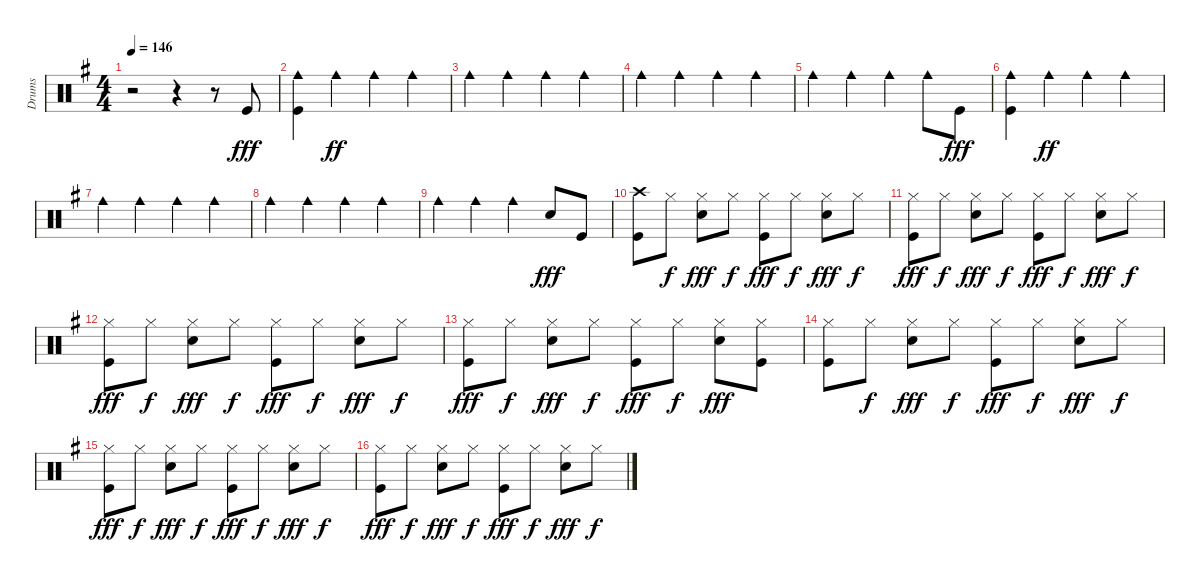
\track ("Drums" "Drums") {instrument percussion}
\staff {score}
\articulation defaults
\ts (4 4)
\tempo 146
\clef neutral
\ks g
r.2{dy fff} r.4 r.8 "Kick (hit)".8 |
("Cowbell medium (hit)" "Kick (hit)").4 "Cowbell medium (hit)".4{dy ff} "Cowbell medium (hit)".4 "Cowbell medium (hit)".4 |
"Cowbell medium (hit)".4 "Cowbell medium (hit)".4 "Cowbell medium (hit)".4 "Cowbell medium (hit)".4 |
"Cowbell medium (hit)".4 "Cowbell medium (hit)".4 "Cowbell medium (hit)".4 "Cowbell medium (hit)".4 |
"Cowbell medium (hit)".4 "Cowbell medium (hit)".4 "Cowbell medium (hit)".4 "Cowbell medium (hit)".8 "Kick (hit)".8{dy fff} |
("Cowbell medium (hit)" "Kick (hit)").4 "Cowbell medium (hit)".4{dy ff} "Cowbell medium (hit)".4 "Cowbell medium (hit)".4 |
"Cowbell medium (hit)".4 "Cowbell medium (hit)".4 "Cowbell medium (hit)".4 "Cowbell medium (hit)".4 |
"Cowbell medium (hit)".4 "Cowbell medium (hit)".4 "Cowbell medium (hit)".4 "Cowbell medium (hit)".4 |
"Cowbell medium (hit)".4 "Cowbell medium (hit)".4 "Cowbell medium (hit)".4 "Snare (hit) 2".8{dy fff} "Kick (hit)".8 |
("Crash high (hit)" "Kick (hit)").8 "Hi-Hat (closed)".8{dy f} ("Hi-Hat (closed)" "Snare (hit) 2").8{dy fff} "Hi-Hat (closed)".8{dy f} ("Hi-Hat (closed)" "Kick (hit)").8{dy fff} "Hi-Hat (closed)".8{dy f} ("Hi-Hat (closed)" "Snare (hit) 2").8{dy fff} "Hi-Hat (closed)".8{dy f} |
("Hi-Hat (closed)" "Kick (hit)").8{dy fff} "Hi-Hat (closed)".8{dy f} ("Hi-Hat (closed)" "Snare (hit) 2").8{dy fff} "Hi-Hat (closed)".8{dy f} ("Hi-Hat (closed)" "Kick (hit)").8{dy fff} "Hi-Hat (closed)".8{dy f} ("Hi-Hat (closed)" "Snare (hit) 2").8{dy fff} "Hi-Hat (closed)".8{dy f} |
("Hi-Hat (closed)" "Kick (hit)").8{dy fff} "Hi-Hat (closed)".8{dy f} ("Hi-Hat (closed)" "Snare (hit) 2").8{dy fff} "Hi-Hat (closed)".8{dy f} ("Hi-Hat (closed)" "Kick (hit)").8{dy fff} "Hi-Hat (closed)".8{dy f} ("Hi-Hat (closed)" "Snare (hit) 2").8{dy fff} "Hi-Hat (closed)".8{dy f} |
("Hi-Hat (closed)" "Kick (hit)").8{dy fff} "Hi-Hat (closed)".8{dy f} ("Hi-Hat (closed)" "Snare (hit) 2").8{dy fff} "Hi-Hat (closed)".8{dy f} ("Hi-Hat (closed)" "Kick (hit)").8{dy fff} "Hi-Hat (closed)".8{dy f} ("Hi-Hat (closed)" "Snare (hit) 2").8{dy fff} ("Hi-Hat (closed)" "Kick (hit)").8 |
("Hi-Hat (closed)" "Kick (hit)").8 "Hi-Hat (closed)".8{dy f} ("Hi-Hat (closed)" "Snare (hit) 2").8{dy fff} "Hi-Hat (closed)".8{dy f} ("Hi-Hat (closed)" "Kick (hit)").8{dy fff} "Hi-Hat (closed)".8{dy f} ("Hi-Hat (closed)" "Snare (hit) 2").8{dy fff} "Hi-Hat (closed)".8{dy f} |
("Hi-Hat (closed)" "Kick (hit)").8{dy fff} "Hi-Hat (closed)".8{dy f} ("Hi-Hat (closed)" "Snare (hit) 2").8{dy fff} "Hi-Hat (closed)".8{dy f} ("Hi-Hat (closed)" "Kick (hit)").8{dy fff} "Hi-Hat (closed)".8{dy f} ("Hi-Hat (closed)" "Snare (hit) 2").8{dy fff} "Hi-Hat (closed)".8{dy f} |
("Hi-Hat (closed)" "Kick (hit)").8{dy fff} "Hi-Hat (closed)".8{dy f} ("Hi-Hat (closed)" "Snare (hit) 2").8{dy fff} "Hi-Hat (closed)".8{dy f} ("Hi-Hat (closed)" "Kick (hit)").8{dy fff} "Hi-Hat (closed)".8{dy f} ("Hi-Hat (closed)" "Snare (hit) 2").8{dy fff} "Hi-Hat (closed)".8{dy f}
